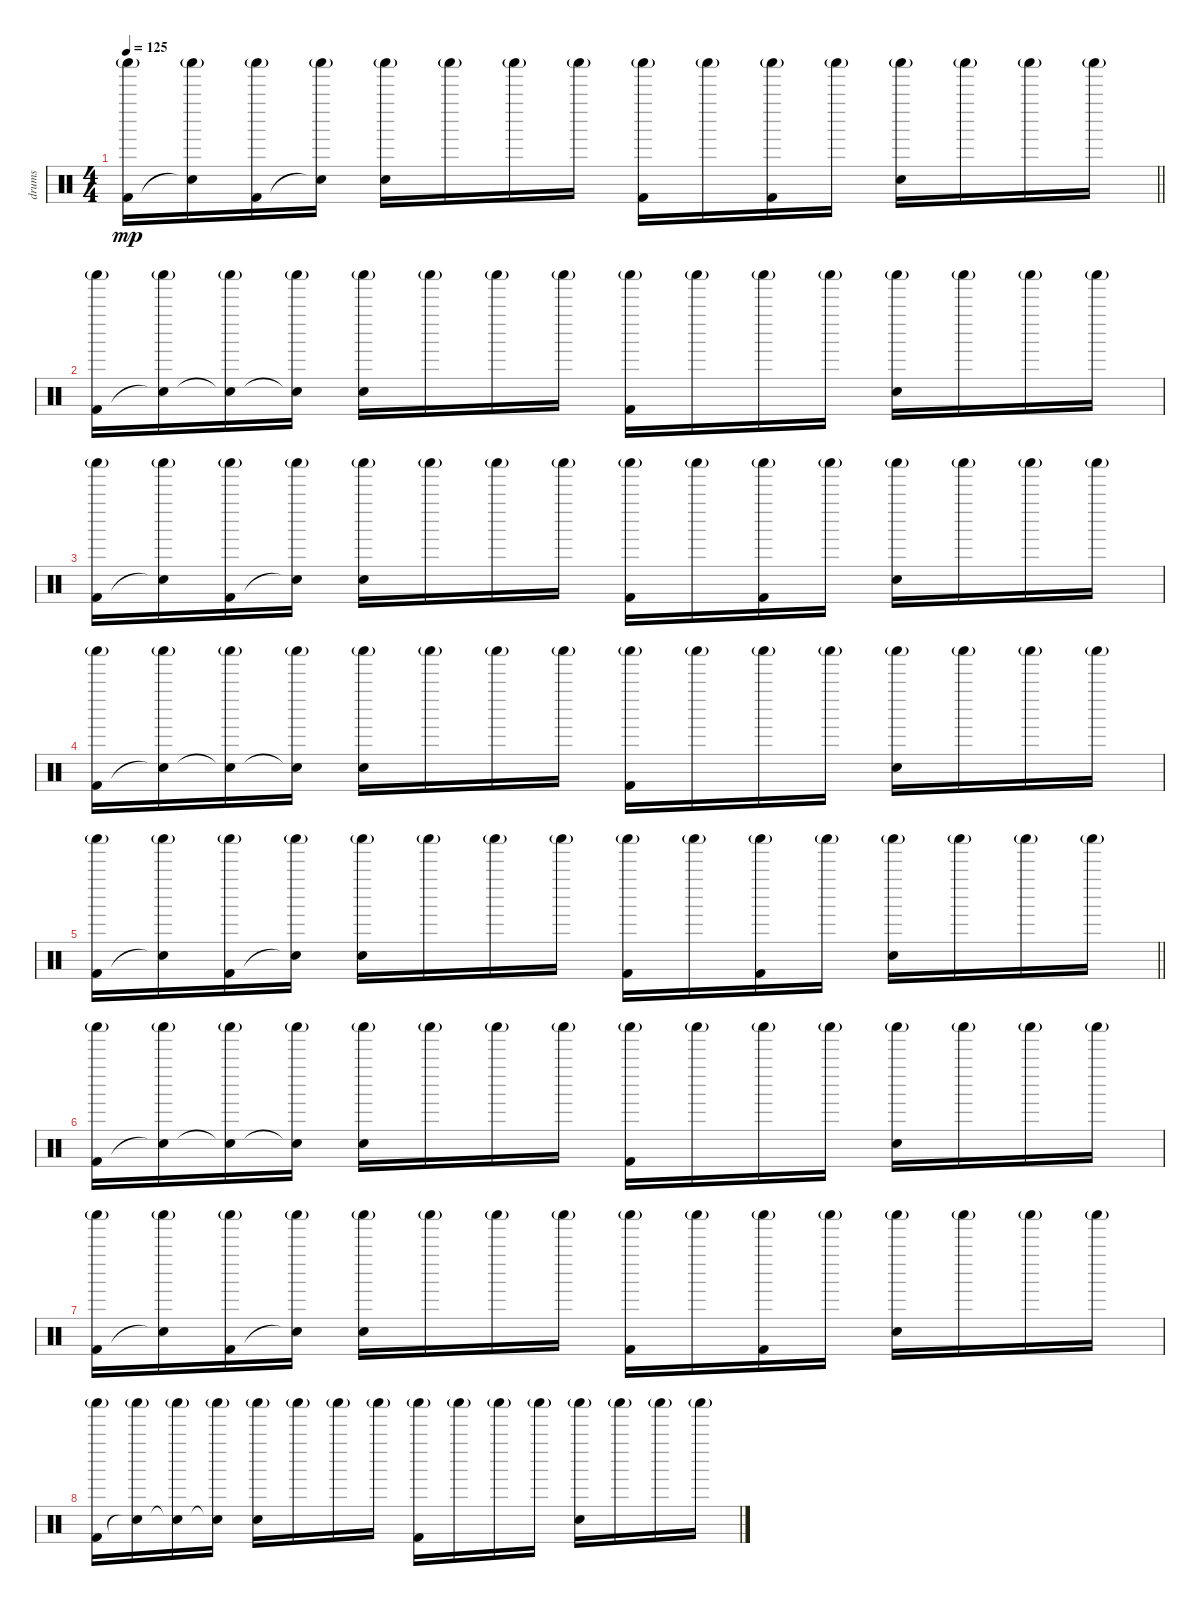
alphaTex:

\track ("drums" "drums") {instrument percussion}
\staff {score}
\articulation defaults
\ts (4 4)
\tempo 125
\clef neutral
\barLineRight lightlight
\ks c
("Shaker (hit)"{g} "Kick (hit) 2").16{dy mp} ("Shaker (hit)"{g} "Snare (hit)"{t}).16 ("Shaker (hit)"{g} "Kick (hit) 2").16 ("Shaker (hit)"{g} "Snare (hit)"{t}).16 ("Shaker (hit)"{g} "Snare (hit) 2").16 "Shaker (hit)"{g}.16 "Shaker (hit)"{g}.16 "Shaker (hit)"{g}.16 ("Shaker (hit)"{g} "Kick (hit) 2").16 "Shaker (hit)"{g}.16 ("Shaker (hit)"{g} "Kick (hit) 2").16 "Shaker (hit)"{g}.16 ("Shaker (hit)"{g} "Snare (hit) 2").16 "Shaker (hit)"{g}.16 "Shaker (hit)"{g}.16 "Shaker (hit)"{g}.16 |
("Shaker (hit)"{g} "Kick (hit) 2").16 ("Shaker (hit)"{g} "Snare (hit)"{t}).16 ("Shaker (hit)"{g} "Snare (hit)"{t}).16 ("Shaker (hit)"{g} "Snare (hit)"{t}).16 ("Shaker (hit)"{g} "Snare (hit) 2").16 "Shaker (hit)"{g}.16 "Shaker (hit)"{g}.16 "Shaker (hit)"{g}.16 ("Shaker (hit)"{g} "Kick (hit) 2").16 "Shaker (hit)"{g}.16 "Shaker (hit)"{g}.16 "Shaker (hit)"{g}.16 ("Shaker (hit)"{g} "Snare (hit) 2").16 "Shaker (hit)"{g}.16 "Shaker (hit)"{g}.16 "Shaker (hit)"{g}.16 |
("Shaker (hit)"{g} "Kick (hit) 2").16 ("Shaker (hit)"{g} "Snare (hit)"{t}).16 ("Shaker (hit)"{g} "Kick (hit) 2").16 ("Shaker (hit)"{g} "Snare (hit)"{t}).16 ("Shaker (hit)"{g} "Snare (hit) 2").16 "Shaker (hit)"{g}.16 "Shaker (hit)"{g}.16 "Shaker (hit)"{g}.16 ("Shaker (hit)"{g} "Kick (hit) 2").16 "Shaker (hit)"{g}.16 ("Shaker (hit)"{g} "Kick (hit) 2").16 "Shaker (hit)"{g}.16 ("Shaker (hit)"{g} "Snare (hit) 2").16 "Shaker (hit)"{g}.16 "Shaker (hit)"{g}.16 "Shaker (hit)"{g}.16 |
("Shaker (hit)"{g} "Kick (hit) 2").16 ("Shaker (hit)"{g} "Snare (hit)"{t}).16 ("Shaker (hit)"{g} "Snare (hit)"{t}).16 ("Shaker (hit)"{g} "Snare (hit)"{t}).16 ("Shaker (hit)"{g} "Snare (hit) 2").16 "Shaker (hit)"{g}.16 "Shaker (hit)"{g}.16 "Shaker (hit)"{g}.16 ("Shaker (hit)"{g} "Kick (hit) 2").16 "Shaker (hit)"{g}.16 "Shaker (hit)"{g}.16 "Shaker (hit)"{g}.16 ("Shaker (hit)"{g} "Snare (hit) 2").16 "Shaker (hit)"{g}.16 "Shaker (hit)"{g}.16 "Shaker (hit)"{g}.16 |
\barLineRight lightlight
("Shaker (hit)"{g} "Kick (hit) 2").16 ("Shaker (hit)"{g} "Snare (hit)"{t}).16 ("Shaker (hit)"{g} "Kick (hit) 2").16 ("Shaker (hit)"{g} "Snare (hit)"{t}).16 ("Shaker (hit)"{g} "Snare (hit) 2").16 "Shaker (hit)"{g}.16 "Shaker (hit)"{g}.16 "Shaker (hit)"{g}.16 ("Shaker (hit)"{g} "Kick (hit) 2").16 "Shaker (hit)"{g}.16 ("Shaker (hit)"{g} "Kick (hit) 2").16 "Shaker (hit)"{g}.16 ("Shaker (hit)"{g} "Snare (hit) 2").16 "Shaker (hit)"{g}.16 "Shaker (hit)"{g}.16 "Shaker (hit)"{g}.16 |
("Shaker (hit)"{g} "Kick (hit) 2").16 ("Shaker (hit)"{g} "Snare (hit)"{t}).16 ("Shaker (hit)"{g} "Snare (hit)"{t}).16 ("Shaker (hit)"{g} "Snare (hit)"{t}).16 ("Shaker (hit)"{g} "Snare (hit) 2").16 "Shaker (hit)"{g}.16 "Shaker (hit)"{g}.16 "Shaker (hit)"{g}.16 ("Shaker (hit)"{g} "Kick (hit) 2").16 "Shaker (hit)"{g}.16 "Shaker (hit)"{g}.16 "Shaker (hit)"{g}.16 ("Shaker (hit)"{g} "Snare (hit) 2").16 "Shaker (hit)"{g}.16 "Shaker (hit)"{g}.16 "Shaker (hit)"{g}.16 |
("Shaker (hit)"{g} "Kick (hit) 2").16 ("Shaker (hit)"{g} "Snare (hit)"{t}).16 ("Shaker (hit)"{g} "Kick (hit) 2").16 ("Shaker (hit)"{g} "Snare (hit)"{t}).16 ("Shaker (hit)"{g} "Snare (hit) 2").16 "Shaker (hit)"{g}.16 "Shaker (hit)"{g}.16 "Shaker (hit)"{g}.16 ("Shaker (hit)"{g} "Kick (hit) 2").16 "Shaker (hit)"{g}.16 ("Shaker (hit)"{g} "Kick (hit) 2").16 "Shaker (hit)"{g}.16 ("Shaker (hit)"{g} "Snare (hit) 2").16 "Shaker (hit)"{g}.16 "Shaker (hit)"{g}.16 "Shaker (hit)"{g}.16 |
("Shaker (hit)"{g} "Kick (hit) 2").16 ("Shaker (hit)"{g} "Snare (hit)"{t}).16 ("Shaker (hit)"{g} "Snare (hit)"{t}).16 ("Shaker (hit)"{g} "Snare (hit)"{t}).16 ("Shaker (hit)"{g} "Snare (hit) 2").16 "Shaker (hit)"{g}.16 "Shaker (hit)"{g}.16 "Shaker (hit)"{g}.16 ("Shaker (hit)"{g} "Kick (hit) 2").16 "Shaker (hit)"{g}.16 "Shaker (hit)"{g}.16 "Shaker (hit)"{g}.16 ("Shaker (hit)"{g} "Snare (hit) 2").16 "Shaker (hit)"{g}.16 "Shaker (hit)"{g}.16 "Shaker (hit)"{g}.16
